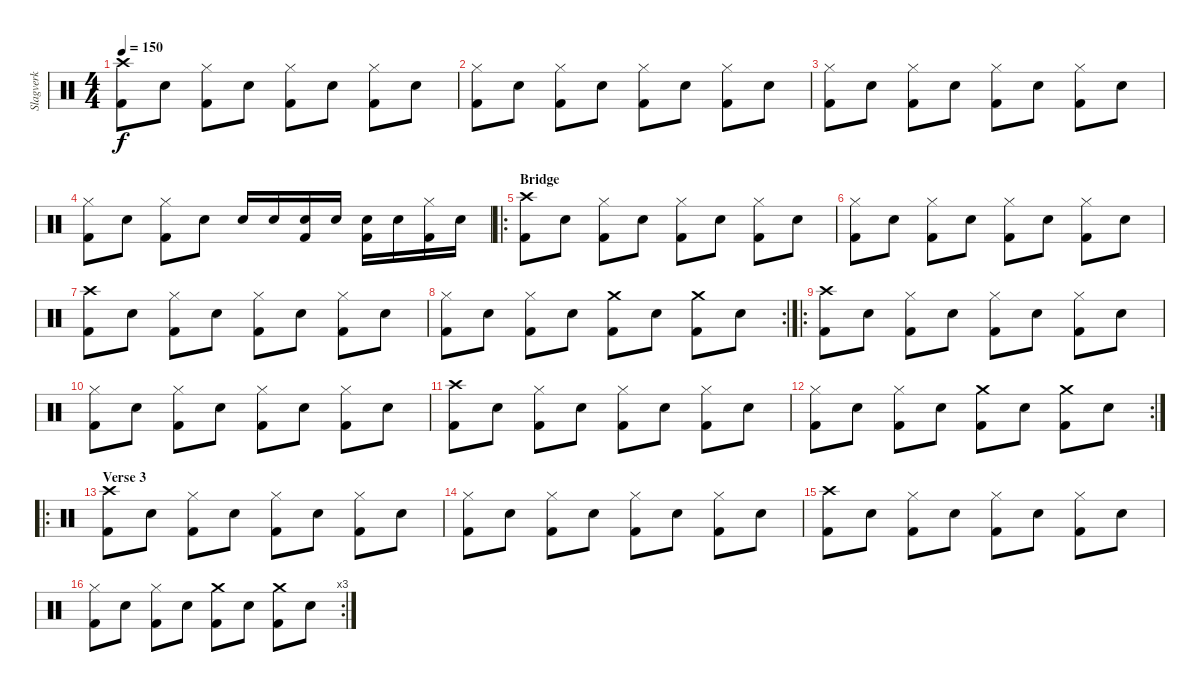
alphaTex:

\track ("Slagverk" "Slagverk") {instrument percussion}
\staff {score}
\articulation defaults
\ts (4 4)
\tempo 150
\clef neutral
\ks c
("Crash high (hit)" "Kick (hit) 2").8{dy f} "Electric Snare (hit)".8 ("Hi-Hat (closed)" "Kick (hit) 2").8 "Electric Snare (hit)".8 ("Hi-Hat (closed)" "Kick (hit) 2").8 "Electric Snare (hit)".8 ("Hi-Hat (closed)" "Kick (hit) 2").8 "Electric Snare (hit)".8 |
("Hi-Hat (closed)" "Kick (hit) 2").8 "Electric Snare (hit)".8 ("Hi-Hat (closed)" "Kick (hit) 2").8 "Electric Snare (hit)".8 ("Hi-Hat (closed)" "Kick (hit) 2").8 "Electric Snare (hit)".8 ("Hi-Hat (closed)" "Kick (hit) 2").8 "Electric Snare (hit)".8 |
("Hi-Hat (closed)" "Kick (hit) 2").8 "Electric Snare (hit)".8 ("Hi-Hat (closed)" "Kick (hit) 2").8 "Electric Snare (hit)".8 ("Hi-Hat (closed)" "Kick (hit) 2").8 "Electric Snare (hit)".8 ("Hi-Hat (closed)" "Kick (hit) 2").8 "Electric Snare (hit)".8 |
("Hi-Hat (closed)" "Kick (hit) 2").8 "Electric Snare (hit)".8 ("Hi-Hat (closed)" "Kick (hit) 2").8 "Electric Snare (hit)".8 "Electric Snare (hit)".16 "Electric Snare (hit)".16 ("Electric Snare (hit)" "Kick (hit) 2").16 "Electric Snare (hit)".16 ("Electric Snare (hit)" "Kick (hit) 2").16 "Electric Snare (hit)".16 ("Hi-Hat (closed)" "Kick (hit) 2").16 "Electric Snare (hit)".16 |
\ro
\section ("" "Bridge")
("Crash high (hit)" "Kick (hit) 2").8 "Electric Snare (hit)".8 ("Hi-Hat (closed)" "Kick (hit) 2").8 "Electric Snare (hit)".8 ("Hi-Hat (closed)" "Kick (hit) 2").8 "Electric Snare (hit)".8 ("Hi-Hat (closed)" "Kick (hit) 2").8 "Electric Snare (hit)".8 |
("Hi-Hat (closed)" "Kick (hit) 2").8 "Electric Snare (hit)".8 ("Hi-Hat (closed)" "Kick (hit) 2").8 "Electric Snare (hit)".8 ("Hi-Hat (closed)" "Kick (hit) 2").8 "Electric Snare (hit)".8 ("Hi-Hat (closed)" "Kick (hit) 2").8 "Electric Snare (hit)".8 |
("Crash high (hit)" "Kick (hit) 2").8 "Electric Snare (hit)".8 ("Hi-Hat (closed)" "Kick (hit) 2").8 "Electric Snare (hit)".8 ("Hi-Hat (closed)" "Kick (hit) 2").8 "Electric Snare (hit)".8 ("Hi-Hat (closed)" "Kick (hit) 2").8 "Electric Snare (hit)".8 |
\rc 2
("Hi-Hat (closed)" "Kick (hit) 2").8 "Electric Snare (hit)".8 ("Hi-Hat (closed)" "Kick (hit) 2").8 "Electric Snare (hit)".8 ("Crash medium (hit)" "Kick (hit) 2").8 "Electric Snare (hit)".8 ("Crash medium (hit)" "Kick (hit) 2").8 "Electric Snare (hit)".8 |
\ro
("Crash high (hit)" "Kick (hit) 2").8 "Electric Snare (hit)".8 ("Hi-Hat (closed)" "Kick (hit) 2").8 "Electric Snare (hit)".8 ("Hi-Hat (closed)" "Kick (hit) 2").8 "Electric Snare (hit)".8 ("Hi-Hat (closed)" "Kick (hit) 2").8 "Electric Snare (hit)".8 |
("Hi-Hat (closed)" "Kick (hit) 2").8 "Electric Snare (hit)".8 ("Hi-Hat (closed)" "Kick (hit) 2").8 "Electric Snare (hit)".8 ("Hi-Hat (closed)" "Kick (hit) 2").8 "Electric Snare (hit)".8 ("Hi-Hat (closed)" "Kick (hit) 2").8 "Electric Snare (hit)".8 |
("Crash high (hit)" "Kick (hit) 2").8 "Electric Snare (hit)".8 ("Hi-Hat (closed)" "Kick (hit) 2").8 "Electric Snare (hit)".8 ("Hi-Hat (closed)" "Kick (hit) 2").8 "Electric Snare (hit)".8 ("Hi-Hat (closed)" "Kick (hit) 2").8 "Electric Snare (hit)".8 |
\rc 2
("Hi-Hat (closed)" "Kick (hit) 2").8 "Electric Snare (hit)".8 ("Hi-Hat (closed)" "Kick (hit) 2").8 "Electric Snare (hit)".8 ("Crash medium (hit)" "Kick (hit) 2").8 "Electric Snare (hit)".8 ("Crash medium (hit)" "Kick (hit) 2").8 "Electric Snare (hit)".8 |
\ro
\section ("" "Verse 3")
("Crash high (hit)" "Kick (hit) 2").8 "Electric Snare (hit)".8 ("Hi-Hat (closed)" "Kick (hit) 2").8 "Electric Snare (hit)".8 ("Hi-Hat (closed)" "Kick (hit) 2").8 "Electric Snare (hit)".8 ("Hi-Hat (closed)" "Kick (hit) 2").8 "Electric Snare (hit)".8 |
("Hi-Hat (closed)" "Kick (hit) 2").8 "Electric Snare (hit)".8 ("Hi-Hat (closed)" "Kick (hit) 2").8 "Electric Snare (hit)".8 ("Hi-Hat (closed)" "Kick (hit) 2").8 "Electric Snare (hit)".8 ("Hi-Hat (closed)" "Kick (hit) 2").8 "Electric Snare (hit)".8 |
("Crash high (hit)" "Kick (hit) 2").8 "Electric Snare (hit)".8 ("Hi-Hat (closed)" "Kick (hit) 2").8 "Electric Snare (hit)".8 ("Hi-Hat (closed)" "Kick (hit) 2").8 "Electric Snare (hit)".8 ("Hi-Hat (closed)" "Kick (hit) 2").8 "Electric Snare (hit)".8 |
\rc 3
("Hi-Hat (closed)" "Kick (hit) 2").8 "Electric Snare (hit)".8 ("Hi-Hat (closed)" "Kick (hit) 2").8 "Electric Snare (hit)".8 ("Crash medium (hit)" "Kick (hit) 2").8 "Electric Snare (hit)".8 ("Crash medium (hit)" "Kick (hit) 2").8 "Electric Snare (hit)".8
